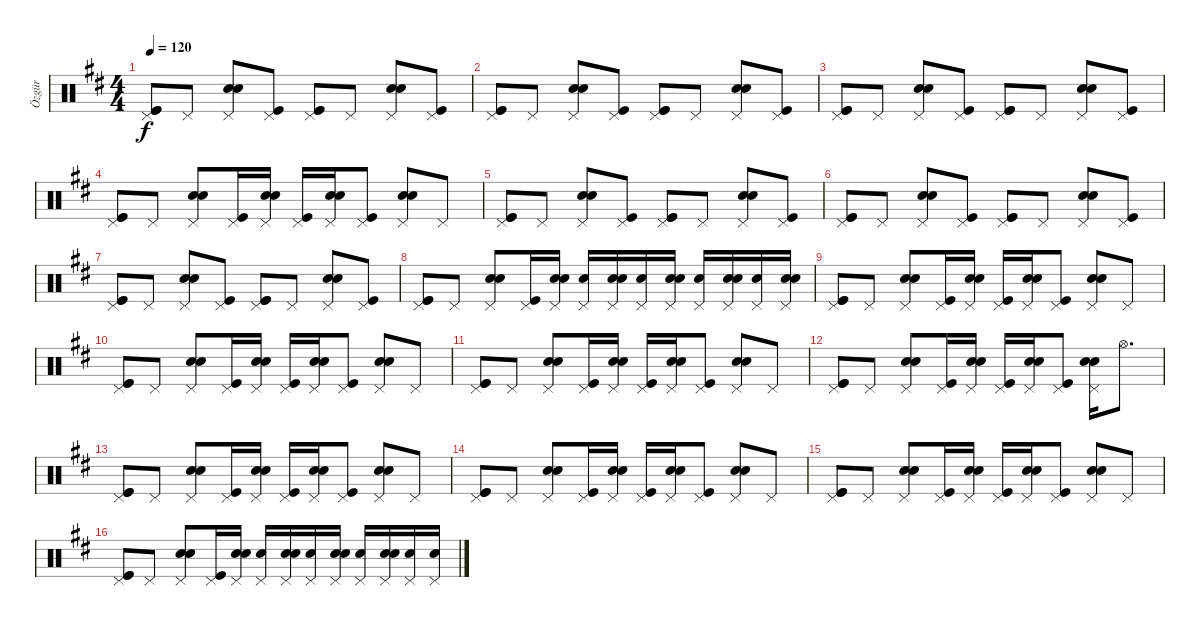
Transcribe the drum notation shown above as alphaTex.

\track ("Özgür" "Özgür") {instrument percussion}
\staff {score}
\articulation defaults
\ts (4 4)
\tempo 120
\clef neutral
\ks d
("Pedal Hi-Hat (hit)" "Kick (hit)" "Kick (hit)").8{dy f} "Pedal Hi-Hat (hit)".8 ("Pedal Hi-Hat (hit)" "Electric Snare (hit)" "Electric Snare (hit)").8 ("Pedal Hi-Hat (hit)" "Kick (hit)").8 ("Pedal Hi-Hat (hit)" "Kick (hit)" "Kick (hit)").8 "Pedal Hi-Hat (hit)".8 ("Pedal Hi-Hat (hit)" "Electric Snare (hit)" "Electric Snare (hit)").8 ("Pedal Hi-Hat (hit)" "Kick (hit)").8 |
("Pedal Hi-Hat (hit)" "Kick (hit)" "Kick (hit)").8 "Pedal Hi-Hat (hit)".8 ("Pedal Hi-Hat (hit)" "Electric Snare (hit)" "Electric Snare (hit)").8 ("Pedal Hi-Hat (hit)" "Kick (hit)").8 ("Pedal Hi-Hat (hit)" "Kick (hit)" "Kick (hit)").8 "Pedal Hi-Hat (hit)".8 ("Pedal Hi-Hat (hit)" "Electric Snare (hit)" "Electric Snare (hit)").8 ("Pedal Hi-Hat (hit)" "Kick (hit)").8 |
("Pedal Hi-Hat (hit)" "Kick (hit)" "Kick (hit)").8 "Pedal Hi-Hat (hit)".8 ("Pedal Hi-Hat (hit)" "Electric Snare (hit)" "Electric Snare (hit)").8 ("Pedal Hi-Hat (hit)" "Kick (hit)").8 ("Pedal Hi-Hat (hit)" "Kick (hit)" "Kick (hit)").8 "Pedal Hi-Hat (hit)".8 ("Pedal Hi-Hat (hit)" "Electric Snare (hit)" "Electric Snare (hit)").8 ("Pedal Hi-Hat (hit)" "Kick (hit)").8 |
("Pedal Hi-Hat (hit)" "Kick (hit)" "Kick (hit)").8 "Pedal Hi-Hat (hit)".8 ("Pedal Hi-Hat (hit)" "Electric Snare (hit)" "Electric Snare (hit)").8 ("Pedal Hi-Hat (hit)" "Kick (hit)").16 ("Pedal Hi-Hat (hit)" "Electric Snare (hit)" "Electric Snare (hit)").16 ("Pedal Hi-Hat (hit)" "Kick (hit)").16 ("Pedal Hi-Hat (hit)" "Electric Snare (hit)" "Electric Snare (hit)").16 ("Pedal Hi-Hat (hit)" "Kick (hit)").8 ("Pedal Hi-Hat (hit)" "Electric Snare (hit)" "Electric Snare (hit)").8 "Pedal Hi-Hat (hit)".8 |
("Pedal Hi-Hat (hit)" "Kick (hit)" "Kick (hit)").8 "Pedal Hi-Hat (hit)".8 ("Pedal Hi-Hat (hit)" "Electric Snare (hit)" "Electric Snare (hit)").8 ("Pedal Hi-Hat (hit)" "Kick (hit)").8 ("Pedal Hi-Hat (hit)" "Kick (hit)" "Kick (hit)").8 "Pedal Hi-Hat (hit)".8 ("Pedal Hi-Hat (hit)" "Electric Snare (hit)" "Electric Snare (hit)").8 ("Pedal Hi-Hat (hit)" "Kick (hit)").8 |
("Pedal Hi-Hat (hit)" "Kick (hit)" "Kick (hit)").8 "Pedal Hi-Hat (hit)".8 ("Pedal Hi-Hat (hit)" "Electric Snare (hit)" "Electric Snare (hit)").8 ("Pedal Hi-Hat (hit)" "Kick (hit)").8 ("Pedal Hi-Hat (hit)" "Kick (hit)" "Kick (hit)").8 "Pedal Hi-Hat (hit)".8 ("Pedal Hi-Hat (hit)" "Electric Snare (hit)" "Electric Snare (hit)").8 ("Pedal Hi-Hat (hit)" "Kick (hit)").8 |
("Pedal Hi-Hat (hit)" "Kick (hit)" "Kick (hit)").8 "Pedal Hi-Hat (hit)".8 ("Pedal Hi-Hat (hit)" "Electric Snare (hit)" "Electric Snare (hit)").8 ("Pedal Hi-Hat (hit)" "Kick (hit)").8 ("Pedal Hi-Hat (hit)" "Kick (hit)" "Kick (hit)").8 "Pedal Hi-Hat (hit)".8 ("Pedal Hi-Hat (hit)" "Electric Snare (hit)" "Electric Snare (hit)").8 ("Pedal Hi-Hat (hit)" "Kick (hit)").8 |
("Pedal Hi-Hat (hit)" "Kick (hit)" "Kick (hit)").8 "Pedal Hi-Hat (hit)".8 ("Pedal Hi-Hat (hit)" "Electric Snare (hit)" "Electric Snare (hit)").8 ("Pedal Hi-Hat (hit)" "Kick (hit)").16 ("Pedal Hi-Hat (hit)" "Electric Snare (hit)" "Electric Snare (hit)").16 ("Pedal Hi-Hat (hit)" "Electric Snare (hit)").16 ("Pedal Hi-Hat (hit)" "Electric Snare (hit)" "Electric Snare (hit)").16 ("Pedal Hi-Hat (hit)" "Electric Snare (hit)").16 ("Pedal Hi-Hat (hit)" "Electric Snare (hit)" "Electric Snare (hit)").16 ("Pedal Hi-Hat (hit)" "Electric Snare (hit)").16 ("Pedal Hi-Hat (hit)" "Electric Snare (hit)" "Electric Snare (hit)").16 ("Pedal Hi-Hat (hit)" "Electric Snare (hit)").16 ("Pedal Hi-Hat (hit)" "Electric Snare (hit)" "Electric Snare (hit)").16 |
("Pedal Hi-Hat (hit)" "Kick (hit)" "Kick (hit)").8 "Pedal Hi-Hat (hit)".8 ("Pedal Hi-Hat (hit)" "Electric Snare (hit)" "Electric Snare (hit)").8 ("Pedal Hi-Hat (hit)" "Kick (hit)").16 ("Pedal Hi-Hat (hit)" "Electric Snare (hit)" "Electric Snare (hit)").16 ("Pedal Hi-Hat (hit)" "Kick (hit)").16 ("Pedal Hi-Hat (hit)" "Electric Snare (hit)" "Electric Snare (hit)").16 ("Pedal Hi-Hat (hit)" "Kick (hit)").8 ("Pedal Hi-Hat (hit)" "Electric Snare (hit)" "Electric Snare (hit)").8 "Pedal Hi-Hat (hit)".8 |
("Pedal Hi-Hat (hit)" "Kick (hit)" "Kick (hit)").8 "Pedal Hi-Hat (hit)".8 ("Pedal Hi-Hat (hit)" "Electric Snare (hit)" "Electric Snare (hit)").8 ("Pedal Hi-Hat (hit)" "Kick (hit)").16 ("Pedal Hi-Hat (hit)" "Electric Snare (hit)" "Electric Snare (hit)").16 ("Pedal Hi-Hat (hit)" "Kick (hit)").16 ("Pedal Hi-Hat (hit)" "Electric Snare (hit)" "Electric Snare (hit)").16 ("Pedal Hi-Hat (hit)" "Kick (hit)").8 ("Pedal Hi-Hat (hit)" "Electric Snare (hit)" "Electric Snare (hit)").8 "Pedal Hi-Hat (hit)".8 |
("Pedal Hi-Hat (hit)" "Kick (hit)" "Kick (hit)").8 "Pedal Hi-Hat (hit)".8 ("Pedal Hi-Hat (hit)" "Electric Snare (hit)" "Electric Snare (hit)").8 ("Pedal Hi-Hat (hit)" "Kick (hit)").16 ("Pedal Hi-Hat (hit)" "Electric Snare (hit)" "Electric Snare (hit)").16 ("Pedal Hi-Hat (hit)" "Kick (hit)").16 ("Pedal Hi-Hat (hit)" "Electric Snare (hit)" "Electric Snare (hit)").16 ("Pedal Hi-Hat (hit)" "Kick (hit)").8 ("Pedal Hi-Hat (hit)" "Electric Snare (hit)" "Electric Snare (hit)").8 "Pedal Hi-Hat (hit)".8 |
("Pedal Hi-Hat (hit)" "Kick (hit)" "Kick (hit)").8 "Pedal Hi-Hat (hit)".8 ("Pedal Hi-Hat (hit)" "Electric Snare (hit)" "Electric Snare (hit)").8 ("Pedal Hi-Hat (hit)" "Kick (hit)").16 ("Pedal Hi-Hat (hit)" "Electric Snare (hit)" "Electric Snare (hit)").16 ("Pedal Hi-Hat (hit)" "Kick (hit)").16 ("Pedal Hi-Hat (hit)" "Electric Snare (hit)" "Electric Snare (hit)").16 ("Pedal Hi-Hat (hit)" "Kick (hit)").8 ("Pedal Hi-Hat (hit)" "Electric Snare (hit)" "Electric Snare (hit)").16 "Hi-Hat (open)".8{d} |
("Pedal Hi-Hat (hit)" "Kick (hit)" "Kick (hit)").8 "Pedal Hi-Hat (hit)".8 ("Pedal Hi-Hat (hit)" "Electric Snare (hit)" "Electric Snare (hit)").8 ("Pedal Hi-Hat (hit)" "Kick (hit)").16 ("Pedal Hi-Hat (hit)" "Electric Snare (hit)" "Electric Snare (hit)").16 ("Pedal Hi-Hat (hit)" "Kick (hit)").16 ("Pedal Hi-Hat (hit)" "Electric Snare (hit)" "Electric Snare (hit)").16 ("Pedal Hi-Hat (hit)" "Kick (hit)").8 ("Pedal Hi-Hat (hit)" "Electric Snare (hit)" "Electric Snare (hit)").8 "Pedal Hi-Hat (hit)".8 |
("Pedal Hi-Hat (hit)" "Kick (hit)" "Kick (hit)").8 "Pedal Hi-Hat (hit)".8 ("Pedal Hi-Hat (hit)" "Electric Snare (hit)" "Electric Snare (hit)").8 ("Pedal Hi-Hat (hit)" "Kick (hit)").16 ("Pedal Hi-Hat (hit)" "Electric Snare (hit)" "Electric Snare (hit)").16 ("Pedal Hi-Hat (hit)" "Kick (hit)").16 ("Pedal Hi-Hat (hit)" "Electric Snare (hit)" "Electric Snare (hit)").16 ("Pedal Hi-Hat (hit)" "Kick (hit)").8 ("Pedal Hi-Hat (hit)" "Electric Snare (hit)" "Electric Snare (hit)").8 "Pedal Hi-Hat (hit)".8 |
("Pedal Hi-Hat (hit)" "Kick (hit)" "Kick (hit)").8 "Pedal Hi-Hat (hit)".8 ("Pedal Hi-Hat (hit)" "Electric Snare (hit)" "Electric Snare (hit)").8 ("Pedal Hi-Hat (hit)" "Kick (hit)").16 ("Pedal Hi-Hat (hit)" "Electric Snare (hit)" "Electric Snare (hit)").16 ("Pedal Hi-Hat (hit)" "Kick (hit)").16 ("Pedal Hi-Hat (hit)" "Electric Snare (hit)" "Electric Snare (hit)").16 ("Pedal Hi-Hat (hit)" "Kick (hit)").8 ("Pedal Hi-Hat (hit)" "Electric Snare (hit)" "Electric Snare (hit)").8 "Pedal Hi-Hat (hit)".8 |
("Pedal Hi-Hat (hit)" "Kick (hit)" "Kick (hit)").8 "Pedal Hi-Hat (hit)".8 ("Pedal Hi-Hat (hit)" "Electric Snare (hit)" "Electric Snare (hit)").8 ("Pedal Hi-Hat (hit)" "Kick (hit)").16 ("Pedal Hi-Hat (hit)" "Electric Snare (hit)" "Electric Snare (hit)").16 ("Pedal Hi-Hat (hit)" "Electric Snare (hit)").16 ("Pedal Hi-Hat (hit)" "Electric Snare (hit)" "Electric Snare (hit)").16 ("Pedal Hi-Hat (hit)" "Electric Snare (hit)").16 ("Pedal Hi-Hat (hit)" "Electric Snare (hit)" "Electric Snare (hit)").16 ("Pedal Hi-Hat (hit)" "Electric Snare (hit)").16 ("Pedal Hi-Hat (hit)" "Electric Snare (hit)" "Electric Snare (hit)").16 ("Pedal Hi-Hat (hit)" "Electric Snare (hit)").16 ("Pedal Hi-Hat (hit)" "Electric Snare (hit)").16
